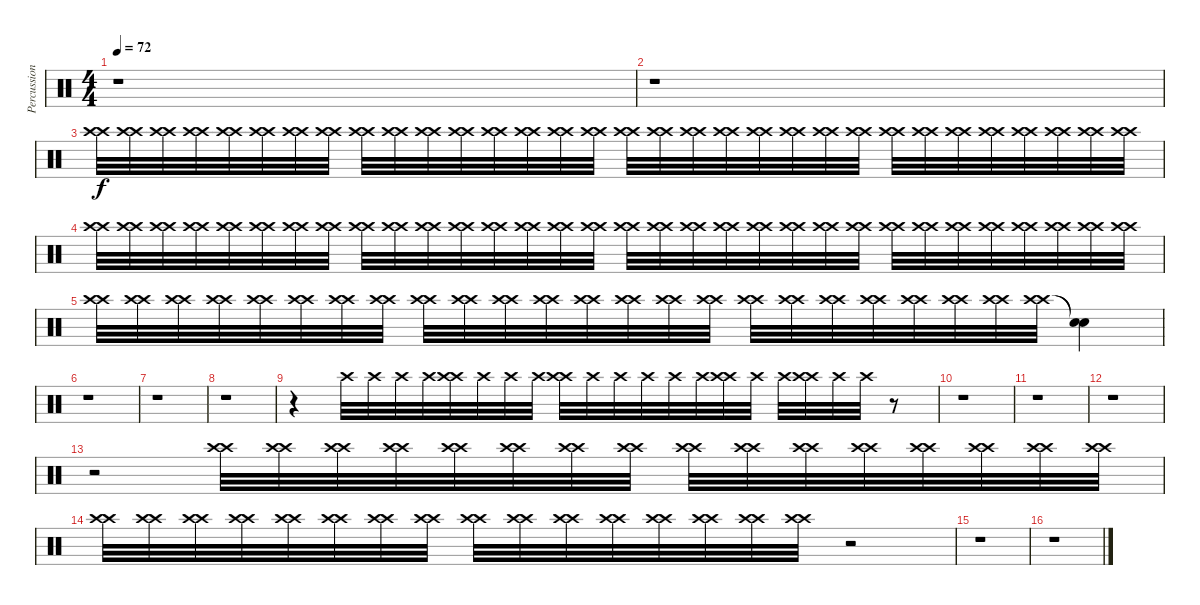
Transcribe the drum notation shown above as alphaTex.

\track ("Percussion" "Percussion") {instrument percussion}
\staff {score}
\articulation defaults
\ts (4 4)
\tempo 72
\clef neutral
\ks c
r.1{dy f} |
r.1 |
("Crash high (hit)" "Crash high (hit)").32{volume 12 balance 8} ("Crash high (hit)" "Crash high (hit)").32 ("Crash high (hit)" "Crash high (hit)").32{volume 2} ("Crash high (hit)" "Crash high (hit)").32 ("Crash high (hit)" "Crash high (hit)").32 ("Crash high (hit)" "Crash high (hit)").32 ("Crash high (hit)" "Crash high (hit)").32 ("Crash high (hit)" "Crash high (hit)").32 ("Crash high (hit)" "Crash high (hit)").32{volume 3} ("Crash high (hit)" "Crash high (hit)").32 ("Crash high (hit)" "Crash high (hit)").32{volume 4} ("Crash high (hit)" "Crash high (hit)").32 ("Crash high (hit)" "Crash high (hit)").32 ("Crash high (hit)" "Crash high (hit)").32{volume 5} ("Crash high (hit)" "Crash high (hit)").32 ("Crash high (hit)" "Crash high (hit)").32{volume 6} ("Crash high (hit)" "Crash high (hit)").32 ("Crash high (hit)" "Crash high (hit)").32 ("Crash high (hit)" "Crash high (hit)").32 ("Crash high (hit)" "Crash high (hit)").32 ("Crash high (hit)" "Crash high (hit)").32 ("Crash high (hit)" "Crash high (hit)").32 ("Crash high (hit)" "Crash high (hit)").32 ("Crash high (hit)" "Crash high (hit)").32 ("Crash high (hit)" "Crash high (hit)").32 ("Crash high (hit)" "Crash high (hit)").32 ("Crash high (hit)" "Crash high (hit)").32 ("Crash high (hit)" "Crash high (hit)").32 ("Crash high (hit)" "Crash high (hit)").32 ("Crash high (hit)" "Crash high (hit)").32 ("Crash high (hit)" "Crash high (hit)").32 ("Crash high (hit)" "Crash high (hit)").32 |
("Crash high (hit)" "Crash high (hit)").32 ("Crash high (hit)" "Crash high (hit)").32 ("Crash high (hit)" "Crash high (hit)").32 ("Crash high (hit)" "Crash high (hit)").32 ("Crash high (hit)" "Crash high (hit)").32{volume 6} ("Crash high (hit)" "Crash high (hit)").32 ("Crash high (hit)" "Crash high (hit)").32{volume 7} ("Crash high (hit)" "Crash high (hit)").32 ("Crash high (hit)" "Crash high (hit)").32{volume 7} ("Crash high (hit)" "Crash high (hit)").32{volume 8} ("Crash high (hit)" "Crash high (hit)").32 ("Crash high (hit)" "Crash high (hit)").32 ("Crash high (hit)" "Crash high (hit)").32 ("Crash high (hit)" "Crash high (hit)").32 ("Crash high (hit)" "Crash high (hit)").32 ("Crash high (hit)" "Crash high (hit)").32{volume 9} ("Crash high (hit)" "Crash high (hit)").32 ("Crash high (hit)" "Crash high (hit)").32 ("Crash high (hit)" "Crash high (hit)").32 ("Crash high (hit)" "Crash high (hit)").32{volume 10} ("Crash high (hit)" "Crash high (hit)").32 ("Crash high (hit)" "Crash high (hit)").32 ("Crash high (hit)" "Crash high (hit)").32 ("Crash high (hit)" "Crash high (hit)").32 ("Crash high (hit)" "Crash high (hit)").32 ("Crash high (hit)" "Crash high (hit)").32 ("Crash high (hit)" "Crash high (hit)").32 ("Crash high (hit)" "Crash high (hit)").32{volume 11} ("Crash high (hit)" "Crash high (hit)").32{volume 12} ("Crash high (hit)" "Crash high (hit)").32 ("Crash high (hit)" "Crash high (hit)").32 ("Crash high (hit)" "Crash high (hit)").32 |
("Crash high (hit)" "Crash high (hit)").32 ("Crash high (hit)" "Crash high (hit)").32{volume 13} ("Crash high (hit)" "Crash high (hit)").32 ("Crash high (hit)" "Crash high (hit)").32 ("Crash high (hit)" "Crash high (hit)").32 ("Crash high (hit)" "Crash high (hit)").32 ("Crash high (hit)" "Crash high (hit)").32{volume 14} ("Crash high (hit)" "Crash high (hit)").32 ("Crash high (hit)" "Crash high (hit)").32 ("Crash high (hit)" "Crash high (hit)").32 ("Crash high (hit)" "Crash high (hit)").32{volume 15} ("Crash high (hit)" "Crash high (hit)").32{volume 16} ("Crash high (hit)" "Crash high (hit)").32{volume 16} ("Crash high (hit)" "Crash high (hit)").32 ("Crash high (hit)" "Crash high (hit)").32 ("Crash high (hit)" "Crash high (hit)").32 ("Crash high (hit)" "Crash high (hit)").32 ("Crash high (hit)" "Crash high (hit)").32 ("Crash high (hit)" "Crash high (hit)").32 ("Crash high (hit)" "Crash high (hit)").32 ("Crash high (hit)" "Crash high (hit)").32 ("Crash high (hit)" "Crash high (hit)").32 ("Crash high (hit)" "Crash high (hit)").32 ("Crash high (hit)" "Crash high (hit)").32 ("Snare (hit)"{t} "Snare (hit)"{t}).4 |
r.1 |
r.1 |
r.1 |
r.4 "Crash high (hit)".32{volume 3} "Crash high (hit)".32{volume 4} "Crash high (hit)".32{volume 4} "Crash high (hit)".32{volume 4} ("Crash high (hit)" "Crash high (hit)").32{volume 5} "Crash high (hit)".32{volume 6} "Crash high (hit)".32{volume 6} "Crash high (hit)".32{volume 7} ("Crash high (hit)" "Crash high (hit)").32{volume 8} "Crash high (hit)".32{volume 9} "Crash high (hit)".32 "Crash high (hit)".32{volume 9} "Crash high (hit)".32 "Crash high (hit)".32{volume 10} ("Crash high (hit)" "Crash high (hit)").32 "Crash high (hit)".32{volume 11} "Crash high (hit)".32{volume 12} ("Crash high (hit)" "Crash high (hit)").32{volume 12} "Crash high (hit)".32{volume 13} "Crash high (hit)".32 r.8 |
r.1 |
r.1 |
r.1 |
r.2 ("Crash high (hit)" "Crash high (hit)").32{volume 9} ("Crash high (hit)" "Crash high (hit)").32 ("Crash high (hit)" "Crash high (hit)").32 ("Crash high (hit)" "Crash high (hit)").32 ("Crash high (hit)" "Crash high (hit)").32 ("Crash high (hit)" "Crash high (hit)").32 ("Crash high (hit)" "Crash high (hit)").32{volume 10} ("Crash high (hit)" "Crash high (hit)").32 ("Crash high (hit)" "Crash high (hit)").32 ("Crash high (hit)" "Crash high (hit)").32 ("Crash high (hit)" "Crash high (hit)").32 ("Crash high (hit)" "Crash high (hit)").32 ("Crash high (hit)" "Crash high (hit)").32{volume 10} ("Crash high (hit)" "Crash high (hit)").32 ("Crash high (hit)" "Crash high (hit)").32 ("Crash high (hit)" "Crash high (hit)").32 |
("Crash high (hit)" "Crash high (hit)").32{volume 11} ("Crash high (hit)" "Crash high (hit)").32 ("Crash high (hit)" "Crash high (hit)").32{volume 12} ("Crash high (hit)" "Crash high (hit)").32 ("Crash high (hit)" "Crash high (hit)").32{volume 12} ("Crash high (hit)" "Crash high (hit)").32 ("Crash high (hit)" "Crash high (hit)").32 ("Crash high (hit)" "Crash high (hit)").32 ("Crash high (hit)" "Crash high (hit)").32 ("Crash high (hit)" "Crash high (hit)").32 ("Crash high (hit)" "Crash high (hit)").32{volume 13} ("Crash high (hit)" "Crash high (hit)").32 ("Crash high (hit)" "Crash high (hit)").32 ("Crash high (hit)" "Crash high (hit)").32 ("Crash high (hit)" "Crash high (hit)").32{volume 14} ("Crash high (hit)" "Crash high (hit)").32 r.2 |
r.1 |
r.1
